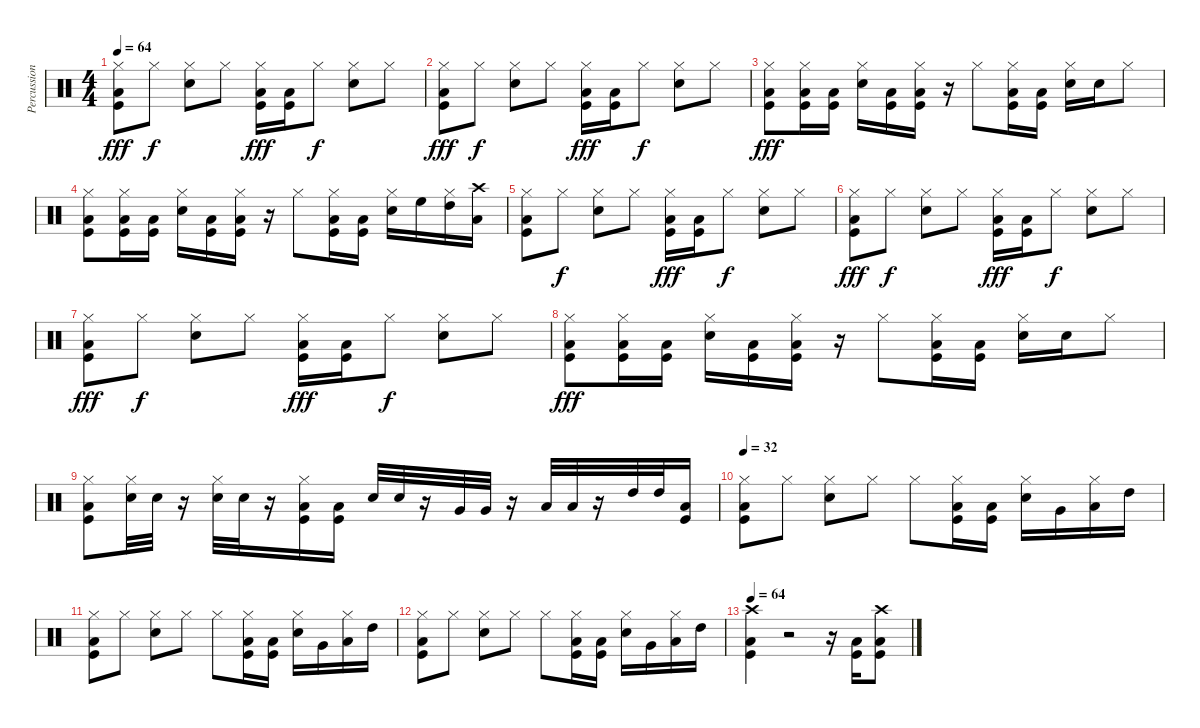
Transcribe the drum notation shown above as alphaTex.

\track ("Percussions" "Percussion") {instrument percussion}
\staff {score}
\articulation defaults
\ts (4 4)
\tempo 64
\clef neutral
\ks c
("Hi-Hat (closed)" "Low Floor Tom (hit)" "Kick (hit)").8{dy fff} "Hi-Hat (closed)".8{dy f} ("Hi-Hat (closed)" "Electric Snare (hit)").8 "Hi-Hat (closed)".8 ("Hi-Hat (closed)" "Low Floor Tom (hit)" "Kick (hit)").16{dy fff} ("Low Floor Tom (hit)" "Kick (hit)").16 "Hi-Hat (closed)".8{dy f} ("Hi-Hat (closed)" "Electric Snare (hit)").8 "Hi-Hat (closed)".8 |
("Hi-Hat (closed)" "Low Floor Tom (hit)" "Kick (hit)").8{dy fff} "Hi-Hat (closed)".8{dy f} ("Hi-Hat (closed)" "Electric Snare (hit)").8 "Hi-Hat (closed)".8 ("Hi-Hat (closed)" "Low Floor Tom (hit)" "Kick (hit)").16{dy fff} ("Low Floor Tom (hit)" "Kick (hit)").16 "Hi-Hat (closed)".8{dy f} ("Hi-Hat (closed)" "Electric Snare (hit)").8 "Hi-Hat (closed)".8 |
("Hi-Hat (closed)" "Low Floor Tom (hit)" "Kick (hit)").8{dy fff} ("Hi-Hat (closed)" "Low Floor Tom (hit)" "Kick (hit)").16 ("Low Floor Tom (hit)" "Kick (hit)").16 ("Hi-Hat (closed)" "Electric Snare (hit)").16 ("Low Floor Tom (hit)" "Kick (hit)").16 ("Hi-Hat (closed)" "Low Floor Tom (hit)" "Kick (hit)").16 r.16 "Hi-Hat (closed)".8 ("Hi-Hat (closed)" "Low Floor Tom (hit)" "Kick (hit)").16 ("Low Floor Tom (hit)" "Kick (hit)").16 ("Hi-Hat (closed)" "Electric Snare (hit)").16 "Electric Snare (hit)".16 "Hi-Hat (closed)".8 |
("Hi-Hat (closed)" "Low Floor Tom (hit)" "Kick (hit)").8 ("Hi-Hat (closed)" "Low Floor Tom (hit)" "Kick (hit)").16 ("Low Floor Tom (hit)" "Kick (hit)").16 ("Hi-Hat (closed)" "Electric Snare (hit)").16 ("Low Floor Tom (hit)" "Kick (hit)").16 ("Hi-Hat (closed)" "Low Floor Tom (hit)" "Kick (hit)").16 r.16 "Hi-Hat (closed)".8 ("Hi-Hat (closed)" "Low Floor Tom (hit)" "Kick (hit)").16 ("Low Floor Tom (hit)" "Kick (hit)").16 ("Hi-Hat (closed)" "Electric Snare (hit)").16 "High Floor Tom (hit)".16 ("Hi-Hat (closed)" "High Tom (hit)").16 ("Crash high (hit)" "Low Tom (hit)").16 |
("Hi-Hat (closed)" "Low Floor Tom (hit)" "Kick (hit)").8 "Hi-Hat (closed)".8{dy f} ("Hi-Hat (closed)" "Electric Snare (hit)").8 "Hi-Hat (closed)".8 ("Hi-Hat (closed)" "Low Floor Tom (hit)" "Kick (hit)").16{dy fff} ("Low Floor Tom (hit)" "Kick (hit)").16 "Hi-Hat (closed)".8{dy f} ("Hi-Hat (closed)" "Electric Snare (hit)").8 "Hi-Hat (closed)".8 |
("Hi-Hat (closed)" "Low Floor Tom (hit)" "Kick (hit)").8{dy fff} "Hi-Hat (closed)".8{dy f} ("Hi-Hat (closed)" "Electric Snare (hit)").8 "Hi-Hat (closed)".8 ("Hi-Hat (closed)" "Low Floor Tom (hit)" "Kick (hit)").16{dy fff} ("Low Floor Tom (hit)" "Kick (hit)").16 "Hi-Hat (closed)".8{dy f} ("Hi-Hat (closed)" "Electric Snare (hit)").8 "Hi-Hat (closed)".8 |
("Hi-Hat (closed)" "Low Floor Tom (hit)" "Kick (hit)").8{dy fff} "Hi-Hat (closed)".8{dy f} ("Hi-Hat (closed)" "Electric Snare (hit)").8 "Hi-Hat (closed)".8 ("Hi-Hat (closed)" "Low Floor Tom (hit)" "Kick (hit)").16{dy fff} ("Low Floor Tom (hit)" "Kick (hit)").16 "Hi-Hat (closed)".8{dy f} ("Hi-Hat (closed)" "Electric Snare (hit)").8 "Hi-Hat (closed)".8 |
("Hi-Hat (closed)" "Low Floor Tom (hit)" "Kick (hit)").8{dy fff} ("Hi-Hat (closed)" "Low Floor Tom (hit)" "Kick (hit)").16 ("Low Floor Tom (hit)" "Kick (hit)").16 ("Hi-Hat (closed)" "Electric Snare (hit)").16 ("Low Floor Tom (hit)" "Kick (hit)").16 ("Hi-Hat (closed)" "Low Floor Tom (hit)" "Kick (hit)").16 r.16 "Hi-Hat (closed)".8 ("Hi-Hat (closed)" "Low Floor Tom (hit)" "Kick (hit)").16 ("Low Floor Tom (hit)" "Kick (hit)").16 ("Hi-Hat (closed)" "Electric Snare (hit)").16 "Electric Snare (hit)".16 "Hi-Hat (closed)".8 |
("Hi-Hat (closed)" "Low Floor Tom (hit)" "Kick (hit)").8 ("Hi-Hat (closed)" "Electric Snare (hit)").32 "Electric Snare (hit)".32 r.16 ("Hi-Hat (closed)" "Electric Snare (hit)").32 "Electric Snare (hit)".32 r.16 ("Hi-Hat (closed)" "Low Floor Tom (hit)" "Kick (hit)").16 ("Low Floor Tom (hit)" "Kick (hit)").16 "Electric Snare (hit)".32 "Electric Snare (hit)".32 r.16 "Very Low Tom (hit)".32 "Very Low Tom (hit)".32 r.16 "Low Tom (hit)".32 "Low Tom (hit)".32 r.16 "High Tom (hit)".32 "High Tom (hit)".32 ("Low Floor Tom (hit)" "Kick (hit)").16 |
\tempo 32
("Hi-Hat (closed)" "Low Floor Tom (hit)" "Kick (hit)").8 "Hi-Hat (closed)".8 ("Hi-Hat (closed)" "Electric Snare (hit)").8 "Hi-Hat (closed)".8 "Hi-Hat (closed)".8 ("Hi-Hat (closed)" "Low Floor Tom (hit)" "Kick (hit)").16 ("Low Floor Tom (hit)" "Kick (hit)").16 ("Hi-Hat (closed)" "Electric Snare (hit)").16 "Very Low Tom (hit)".16 ("Hi-Hat (closed)" "Low Tom (hit)").16 "High Tom (hit)".16 |
("Hi-Hat (closed)" "Low Floor Tom (hit)" "Kick (hit)").8 "Hi-Hat (closed)".8 ("Hi-Hat (closed)" "Electric Snare (hit)").8 "Hi-Hat (closed)".8 "Hi-Hat (closed)".8 ("Hi-Hat (closed)" "Low Floor Tom (hit)" "Kick (hit)").16 ("Low Floor Tom (hit)" "Kick (hit)").16 ("Hi-Hat (closed)" "Electric Snare (hit)").16 "Very Low Tom (hit)".16 ("Hi-Hat (closed)" "Low Tom (hit)").16 "High Tom (hit)".16 |
("Hi-Hat (closed)" "Low Floor Tom (hit)" "Kick (hit)").8 "Hi-Hat (closed)".8 ("Hi-Hat (closed)" "Electric Snare (hit)").8 "Hi-Hat (closed)".8 "Hi-Hat (closed)".8 ("Hi-Hat (closed)" "Low Floor Tom (hit)" "Kick (hit)").16 ("Low Floor Tom (hit)" "Kick (hit)").16 ("Hi-Hat (closed)" "Electric Snare (hit)").16 "Very Low Tom (hit)".16 ("Hi-Hat (closed)" "Low Tom (hit)").16 "High Tom (hit)".16 |
\tempo 64
("Crash high (hit)" "Low Floor Tom (hit)" "Kick (hit)").4 r.2 r.16 ("Low Floor Tom (hit)" "Kick (hit)").16 ("Crash high (hit)" "Low Floor Tom (hit)" "Kick (hit)").8
